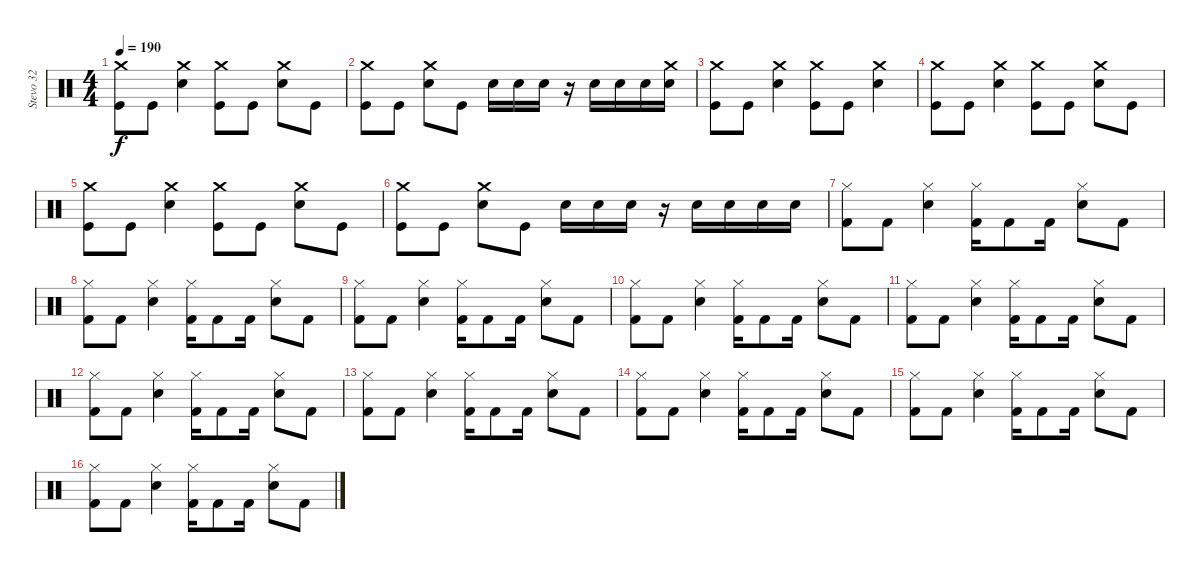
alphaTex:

\track ("Stevo 32" "Stevo 32") {instrument percussion}
\staff {score}
\articulation defaults
\ts (4 4)
\tempo 190
\clef neutral
\ks c
("Crash medium (hit)" "Kick (hit)").8{dy f} "Kick (hit)".8 ("Crash medium (hit)" "Snare (hit) 2").4 ("Crash medium (hit)" "Kick (hit)").8 "Kick (hit)".8 ("Crash medium (hit)" "Snare (hit) 2").8 "Kick (hit)".8 |
("Crash medium (hit)" "Kick (hit)").8 "Kick (hit)".8 ("Crash medium (hit)" "Snare (hit) 2").8 "Kick (hit)".8 "Snare (hit) 2".16 "Snare (hit) 2".16 "Snare (hit) 2".16 r.16 "Snare (hit) 2".16 "Snare (hit) 2".16 "Snare (hit) 2".16 ("Crash medium (hit)" "Snare (hit) 2").16 |
("Crash medium (hit)" "Kick (hit)").8 "Kick (hit)".8 ("Crash medium (hit)" "Snare (hit) 2").4 ("Crash medium (hit)" "Kick (hit)").8 "Kick (hit)".8 ("Crash medium (hit)" "Snare (hit) 2").4 |
("Crash medium (hit)" "Kick (hit)").8 "Kick (hit)".8 ("Crash medium (hit)" "Snare (hit) 2").4 ("Crash medium (hit)" "Kick (hit)").8 "Kick (hit)".8 ("Crash medium (hit)" "Snare (hit) 2").8 "Kick (hit)".8 |
("Crash medium (hit)" "Kick (hit)").8 "Kick (hit)".8 ("Crash medium (hit)" "Snare (hit) 2").4 ("Crash medium (hit)" "Kick (hit)").8 "Kick (hit)".8 ("Crash medium (hit)" "Snare (hit) 2").8 "Kick (hit)".8 |
("Crash medium (hit)" "Kick (hit)").8 "Kick (hit)".8 ("Crash medium (hit)" "Snare (hit) 2").8 "Kick (hit)".8 "Snare (hit) 2".16 "Snare (hit) 2".16 "Snare (hit) 2".16 r.16 "Snare (hit) 2".16 "Snare (hit) 2".16 "Snare (hit) 2".16 "Snare (hit) 2".16 |
("Hi-Hat (closed)" "Kick (hit) 2").8 "Kick (hit) 2".8 ("Hi-Hat (closed)" "Snare (hit) 2").4 ("Hi-Hat (closed)" "Kick (hit) 2").16 "Kick (hit) 2".8 "Kick (hit) 2".16 ("Hi-Hat (closed)" "Snare (hit) 2").8 "Kick (hit) 2".8 |
("Hi-Hat (closed)" "Kick (hit) 2").8 "Kick (hit) 2".8 ("Hi-Hat (closed)" "Snare (hit) 2").4 ("Hi-Hat (closed)" "Kick (hit) 2").16 "Kick (hit) 2".8 "Kick (hit) 2".16 ("Hi-Hat (closed)" "Snare (hit) 2").8 "Kick (hit) 2".8 |
("Hi-Hat (closed)" "Kick (hit) 2").8 "Kick (hit) 2".8 ("Hi-Hat (closed)" "Snare (hit) 2").4 ("Hi-Hat (closed)" "Kick (hit) 2").16 "Kick (hit) 2".8 "Kick (hit) 2".16 ("Hi-Hat (closed)" "Snare (hit) 2").8 "Kick (hit) 2".8 |
("Hi-Hat (closed)" "Kick (hit) 2").8 "Kick (hit) 2".8 ("Hi-Hat (closed)" "Snare (hit) 2").4 ("Hi-Hat (closed)" "Kick (hit) 2").16 "Kick (hit) 2".8 "Kick (hit) 2".16 ("Hi-Hat (closed)" "Snare (hit) 2").8 "Kick (hit) 2".8 |
("Hi-Hat (closed)" "Kick (hit) 2").8 "Kick (hit) 2".8 ("Hi-Hat (closed)" "Snare (hit) 2").4 ("Hi-Hat (closed)" "Kick (hit) 2").16 "Kick (hit) 2".8 "Kick (hit) 2".16 ("Hi-Hat (closed)" "Snare (hit) 2").8 "Kick (hit) 2".8 |
("Hi-Hat (closed)" "Kick (hit) 2").8 "Kick (hit) 2".8 ("Hi-Hat (closed)" "Snare (hit) 2").4 ("Hi-Hat (closed)" "Kick (hit) 2").16 "Kick (hit) 2".8 "Kick (hit) 2".16 ("Hi-Hat (closed)" "Snare (hit) 2").8 "Kick (hit) 2".8 |
("Hi-Hat (closed)" "Kick (hit) 2").8 "Kick (hit) 2".8 ("Hi-Hat (closed)" "Snare (hit) 2").4 ("Hi-Hat (closed)" "Kick (hit) 2").16 "Kick (hit) 2".8 "Kick (hit) 2".16 ("Hi-Hat (closed)" "Snare (hit) 2").8 "Kick (hit) 2".8 |
("Hi-Hat (closed)" "Kick (hit) 2").8 "Kick (hit) 2".8 ("Hi-Hat (closed)" "Snare (hit) 2").4 ("Hi-Hat (closed)" "Kick (hit) 2").16 "Kick (hit) 2".8 "Kick (hit) 2".16 ("Hi-Hat (closed)" "Snare (hit) 2").8 "Kick (hit) 2".8 |
("Hi-Hat (closed)" "Kick (hit) 2").8 "Kick (hit) 2".8 ("Hi-Hat (closed)" "Snare (hit) 2").4 ("Hi-Hat (closed)" "Kick (hit) 2").16 "Kick (hit) 2".8 "Kick (hit) 2".16 ("Hi-Hat (closed)" "Snare (hit) 2").8 "Kick (hit) 2".8 |
("Hi-Hat (closed)" "Kick (hit) 2").8 "Kick (hit) 2".8 ("Hi-Hat (closed)" "Snare (hit) 2").4 ("Hi-Hat (closed)" "Kick (hit) 2").16 "Kick (hit) 2".8 "Kick (hit) 2".16 ("Hi-Hat (closed)" "Snare (hit) 2").8 "Kick (hit) 2".8
